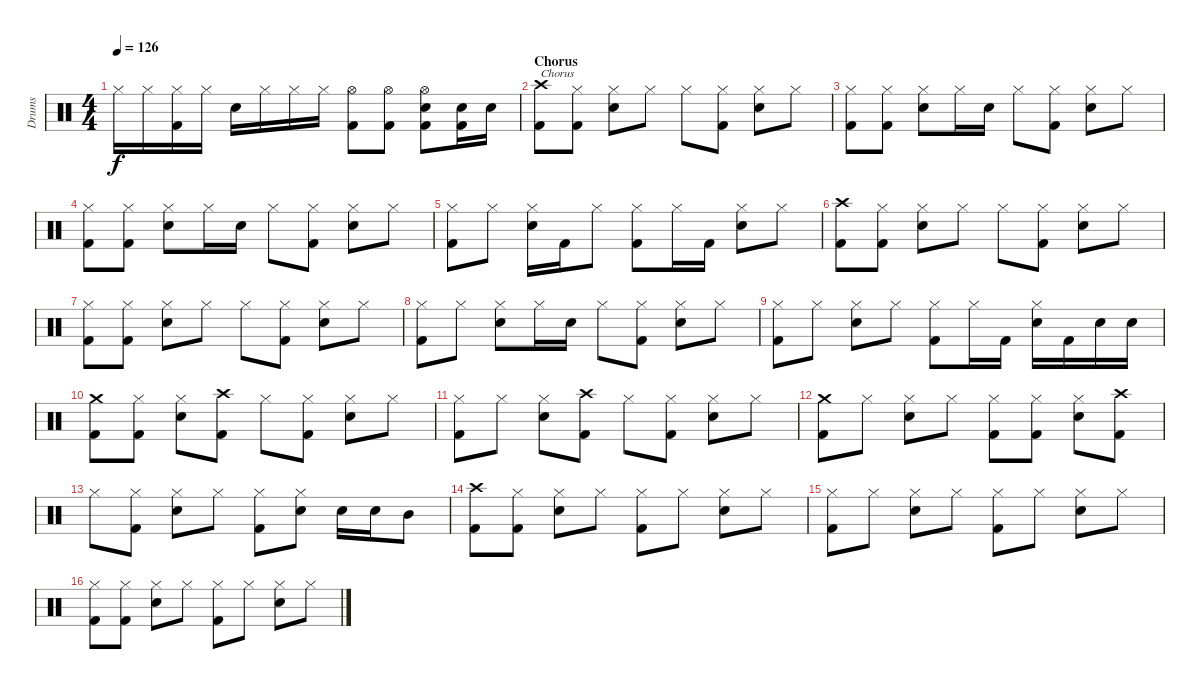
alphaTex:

\track ("Drums" "Drums") {instrument percussion}
\staff {score}
\articulation defaults
\ts (4 4)
\tempo 126
\clef neutral
\ks c "Hi-Hat (closed)".16{dy f} "Hi-Hat (closed)".16
("Hi-Hat (closed)" "Kick (hit) 2").16 "Hi-Hat (closed)".16 "Electric Snare (hit)".16 "Hi-Hat (closed)".16 "Hi-Hat (closed)".16 "Hi-Hat (closed)".16 ("Hi-Hat (open)" "Kick (hit) 2").8 ("Hi-Hat (open)" "Kick (hit) 2").8 ("Hi-Hat (open)" "Electric Snare (hit)" "Kick (hit) 2").8 ("Electric Snare (hit)" "Kick (hit) 2").16 "Electric Snare (hit)".16 |
\section ("" "Chorus ")
("Crash high (hit)" "Kick (hit) 2").8{txt "Chorus"} ("Hi-Hat (closed)" "Kick (hit) 2").8 ("Hi-Hat (closed)" "Electric Snare (hit)").8 "Hi-Hat (closed)".8 "Hi-Hat (closed)".8 ("Hi-Hat (closed)" "Kick (hit) 2").8 ("Hi-Hat (closed)" "Electric Snare (hit)").8 "Hi-Hat (closed)".8 |
("Hi-Hat (closed)" "Kick (hit) 2").8 ("Hi-Hat (closed)" "Kick (hit) 2").8 ("Hi-Hat (closed)" "Electric Snare (hit)").8 "Hi-Hat (closed)".16 "Electric Snare (hit)".16 "Hi-Hat (closed)".8 ("Hi-Hat (closed)" "Kick (hit) 2").8 ("Hi-Hat (closed)" "Electric Snare (hit)").8 "Hi-Hat (closed)".8 |
("Hi-Hat (closed)" "Kick (hit) 2").8 ("Hi-Hat (closed)" "Kick (hit) 2").8 ("Hi-Hat (closed)" "Electric Snare (hit)").8 "Hi-Hat (closed)".16 "Electric Snare (hit)".16 "Hi-Hat (closed)".8 ("Hi-Hat (closed)" "Kick (hit) 2").8 ("Hi-Hat (closed)" "Electric Snare (hit)").8 "Hi-Hat (closed)".8 |
("Hi-Hat (closed)" "Kick (hit) 2").8 "Hi-Hat (closed)".8 ("Hi-Hat (closed)" "Electric Snare (hit)").16 "Kick (hit) 2".16 "Hi-Hat (closed)".8 ("Hi-Hat (closed)" "Kick (hit) 2").8 "Hi-Hat (closed)".16 "Kick (hit) 2".16 ("Hi-Hat (closed)" "Electric Snare (hit)").8 "Hi-Hat (closed)".8 |
("Crash high (hit)" "Kick (hit) 2").8 ("Hi-Hat (closed)" "Kick (hit) 2").8 ("Hi-Hat (closed)" "Electric Snare (hit)").8 "Hi-Hat (closed)".8 "Hi-Hat (closed)".8 ("Hi-Hat (closed)" "Kick (hit) 2").8 ("Hi-Hat (closed)" "Electric Snare (hit)").8 "Hi-Hat (closed)".8 |
("Hi-Hat (closed)" "Kick (hit) 2").8 ("Hi-Hat (closed)" "Kick (hit) 2").8 ("Hi-Hat (closed)" "Electric Snare (hit)").8 "Hi-Hat (closed)".8 "Hi-Hat (closed)".8 ("Hi-Hat (closed)" "Kick (hit) 2").8 ("Hi-Hat (closed)" "Electric Snare (hit)").8 "Hi-Hat (closed)".8 |
("Hi-Hat (closed)" "Kick (hit) 2").8 "Hi-Hat (closed)".8 ("Hi-Hat (closed)" "Electric Snare (hit)").8 "Hi-Hat (closed)".16 "Electric Snare (hit)".16 "Hi-Hat (closed)".8 ("Hi-Hat (closed)" "Kick (hit) 2").8 ("Hi-Hat (closed)" "Electric Snare (hit)").8 "Hi-Hat (closed)".8 |
("Hi-Hat (closed)" "Kick (hit) 2").8 "Hi-Hat (closed)".8 ("Hi-Hat (closed)" "Electric Snare (hit)").8 "Hi-Hat (closed)".8 ("Hi-Hat (closed)" "Kick (hit) 2").8 "Hi-Hat (closed)".16 "Kick (hit) 2".16 ("Hi-Hat (closed)" "Electric Snare (hit)").16 "Kick (hit) 2".16 "Electric Snare (hit)".16 "Electric Snare (hit)".16 |
("Crash medium (hit)" "Kick (hit) 2").8 ("Hi-Hat (closed)" "Kick (hit) 2").8 ("Hi-Hat (closed)" "Electric Snare (hit)").8 ("Crash high (hit)" "Kick (hit) 2").8 "Hi-Hat (closed)".8 ("Hi-Hat (closed)" "Kick (hit) 2").8 ("Hi-Hat (closed)" "Electric Snare (hit)").8 "Hi-Hat (closed)".8 |
("Hi-Hat (closed)" "Kick (hit) 2").8 "Hi-Hat (closed)".8 ("Hi-Hat (closed)" "Electric Snare (hit)").8 ("Crash high (hit)" "Kick (hit) 2").8 "Hi-Hat (closed)".8 ("Hi-Hat (closed)" "Kick (hit) 2").8 ("Hi-Hat (closed)" "Electric Snare (hit)").8 "Hi-Hat (closed)".8 |
("Crash medium (hit)" "Kick (hit) 2").8 "Hi-Hat (closed)".8 ("Hi-Hat (closed)" "Electric Snare (hit)").8 "Hi-Hat (closed)".8 ("Hi-Hat (closed)" "Kick (hit) 2").8 ("Hi-Hat (closed)" "Kick (hit) 2").8 ("Hi-Hat (closed)" "Electric Snare (hit)").8 ("Crash high (hit)" "Kick (hit) 2").8 |
"Hi-Hat (closed)".8 ("Hi-Hat (closed)" "Kick (hit) 2").8 ("Hi-Hat (closed)" "Electric Snare (hit)").8 "Hi-Hat (closed)".8 ("Hi-Hat (closed)" "Kick (hit) 2").8 ("Hi-Hat (closed)" "Electric Snare (hit)").8 "Electric Snare (hit)".16 "Electric Snare (hit)".16 "Mid Tom (hit)".8 |
("Crash high (hit)" "Kick (hit) 2").8 ("Hi-Hat (closed)" "Kick (hit) 2").8 ("Hi-Hat (closed)" "Electric Snare (hit)").8 "Hi-Hat (closed)".8 ("Hi-Hat (closed)" "Kick (hit) 2").8 "Hi-Hat (closed)".8 ("Hi-Hat (closed)" "Electric Snare (hit)").8 "Hi-Hat (closed)".8 |
("Hi-Hat (closed)" "Kick (hit) 2").8 "Hi-Hat (closed)".8 ("Hi-Hat (closed)" "Electric Snare (hit)").8 "Hi-Hat (closed)".8 ("Hi-Hat (closed)" "Kick (hit) 2").8 "Hi-Hat (closed)".8 ("Hi-Hat (closed)" "Electric Snare (hit)").8 "Hi-Hat (closed)".8 |
("Hi-Hat (closed)" "Kick (hit) 2").8 ("Hi-Hat (closed)" "Kick (hit) 2").8 ("Hi-Hat (closed)" "Electric Snare (hit)").8 "Hi-Hat (closed)".8 ("Hi-Hat (closed)" "Kick (hit) 2").8 "Hi-Hat (closed)".8 ("Hi-Hat (closed)" "Electric Snare (hit)").8 "Hi-Hat (closed)".8
